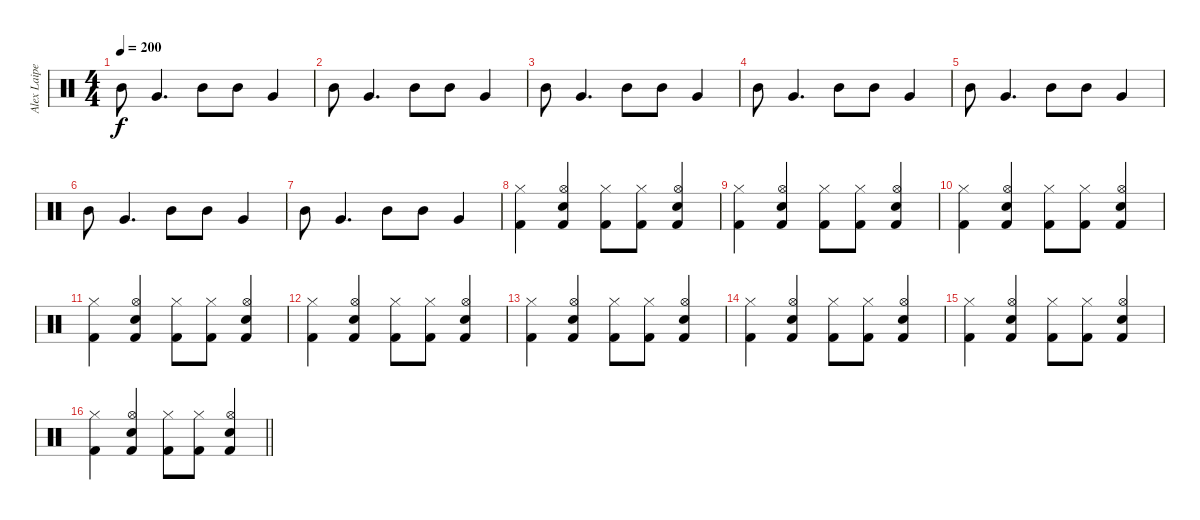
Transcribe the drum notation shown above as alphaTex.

\track ("Alex Laipeneiks - Drums" "Alex Laipe") {instrument percussion}
\staff {score}
\articulation defaults
\ts (4 4)
\tempo 200
\clef neutral
\ks c "Mid Tom (hit)".8{dy f} "Very Low Tom (hit)".4{d} "Mid Tom (hit)".8 "Mid Tom (hit)".8 "Very Low Tom (hit)".4
|
"Mid Tom (hit)".8 "Very Low Tom (hit)".4{d} "Mid Tom (hit)".8 "Mid Tom (hit)".8 "Very Low Tom (hit)".4 |
"Mid Tom (hit)".8 "Very Low Tom (hit)".4{d} "Mid Tom (hit)".8 "Mid Tom (hit)".8 "Very Low Tom (hit)".4 |
"Mid Tom (hit)".8 "Very Low Tom (hit)".4{d} "Mid Tom (hit)".8 "Mid Tom (hit)".8 "Very Low Tom (hit)".4 |
"Mid Tom (hit)".8 "Very Low Tom (hit)".4{d} "Mid Tom (hit)".8 "Mid Tom (hit)".8 "Very Low Tom (hit)".4 |
"Mid Tom (hit)".8 "Very Low Tom (hit)".4{d} "Mid Tom (hit)".8 "Mid Tom (hit)".8 "Very Low Tom (hit)".4 |
"Mid Tom (hit)".8 "Very Low Tom (hit)".4{d} "Mid Tom (hit)".8 "Mid Tom (hit)".8 "Very Low Tom (hit)".4 |
("Hi-Hat (closed)" "Kick (hit) 2").4 ("Hi-Hat (open)" "Snare (hit) 2" "Kick (hit) 2").4 ("Hi-Hat (closed)" "Kick (hit) 2").8 ("Hi-Hat (closed)" "Kick (hit) 2").8 ("Hi-Hat (open)" "Snare (hit) 2" "Kick (hit) 2").4 |
("Hi-Hat (closed)" "Kick (hit) 2").4 ("Hi-Hat (open)" "Snare (hit) 2" "Kick (hit) 2").4 ("Hi-Hat (closed)" "Kick (hit) 2").8 ("Hi-Hat (closed)" "Kick (hit) 2").8 ("Hi-Hat (open)" "Snare (hit) 2" "Kick (hit) 2").4 |
("Hi-Hat (closed)" "Kick (hit) 2").4 ("Hi-Hat (open)" "Snare (hit) 2" "Kick (hit) 2").4 ("Hi-Hat (closed)" "Kick (hit) 2").8 ("Hi-Hat (closed)" "Kick (hit) 2").8 ("Hi-Hat (open)" "Snare (hit) 2" "Kick (hit) 2").4 |
("Hi-Hat (closed)" "Kick (hit) 2").4 ("Hi-Hat (open)" "Snare (hit) 2" "Kick (hit) 2").4 ("Hi-Hat (closed)" "Kick (hit) 2").8 ("Hi-Hat (closed)" "Kick (hit) 2").8 ("Hi-Hat (open)" "Snare (hit) 2" "Kick (hit) 2").4 |
("Hi-Hat (closed)" "Kick (hit) 2").4 ("Hi-Hat (open)" "Snare (hit) 2" "Kick (hit) 2").4 ("Hi-Hat (closed)" "Kick (hit) 2").8 ("Hi-Hat (closed)" "Kick (hit) 2").8 ("Hi-Hat (open)" "Snare (hit) 2" "Kick (hit) 2").4 |
("Hi-Hat (closed)" "Kick (hit) 2").4 ("Hi-Hat (open)" "Snare (hit) 2" "Kick (hit) 2").4 ("Hi-Hat (closed)" "Kick (hit) 2").8 ("Hi-Hat (closed)" "Kick (hit) 2").8 ("Hi-Hat (open)" "Snare (hit) 2" "Kick (hit) 2").4 |
("Hi-Hat (closed)" "Kick (hit) 2").4 ("Hi-Hat (open)" "Snare (hit) 2" "Kick (hit) 2").4 ("Hi-Hat (closed)" "Kick (hit) 2").8 ("Hi-Hat (closed)" "Kick (hit) 2").8 ("Hi-Hat (open)" "Snare (hit) 2" "Kick (hit) 2").4 |
("Hi-Hat (closed)" "Kick (hit) 2").4 ("Hi-Hat (open)" "Snare (hit) 2" "Kick (hit) 2").4 ("Hi-Hat (closed)" "Kick (hit) 2").8 ("Hi-Hat (closed)" "Kick (hit) 2").8 ("Hi-Hat (open)" "Snare (hit) 2" "Kick (hit) 2").4 |
\barLineRight lightlight
("Hi-Hat (closed)" "Kick (hit) 2").4 ("Hi-Hat (open)" "Snare (hit) 2" "Kick (hit) 2").4 ("Hi-Hat (closed)" "Kick (hit) 2").8 ("Hi-Hat (closed)" "Kick (hit) 2").8 ("Hi-Hat (open)" "Snare (hit) 2" "Kick (hit) 2").4
